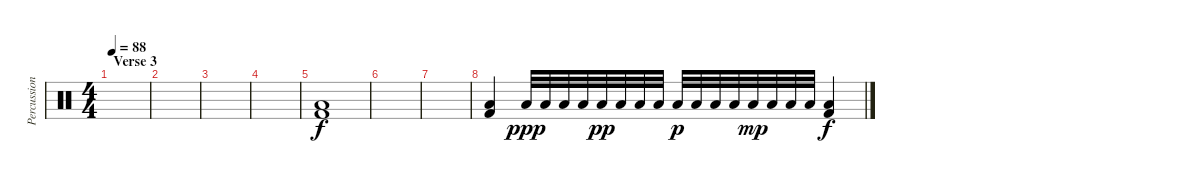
\track ("Percussion" "Percussion") {instrument percussion}
\staff {score}
\articulation defaults
\ts (4 4)
\section ("" "Verse 3")
\tempo 88
\clef neutral
\ks c
|
|
|
|
("Low Floor Tom (hit)" "Kick (hit) 2").1 |
|
|
("Low Floor Tom (hit)" "Kick (hit) 2").4 "Low Floor Tom (hit)".32{dy ppp} "Low Floor Tom (hit)".32 "Low Floor Tom (hit)".32 "Low Floor Tom (hit)".32 "Low Floor Tom (hit)".32{dy pp} "Low Floor Tom (hit)".32 "Low Floor Tom (hit)".32 "Low Floor Tom (hit)".32 "Low Floor Tom (hit)".32{dy p} "Low Floor Tom (hit)".32 "Low Floor Tom (hit)".32 "Low Floor Tom (hit)".32 "Low Floor Tom (hit)".32{dy mp} "Low Floor Tom (hit)".32 "Low Floor Tom (hit)".32 "Low Floor Tom (hit)".32 ("Low Floor Tom (hit)" "Kick (hit) 2").4{dy f}
